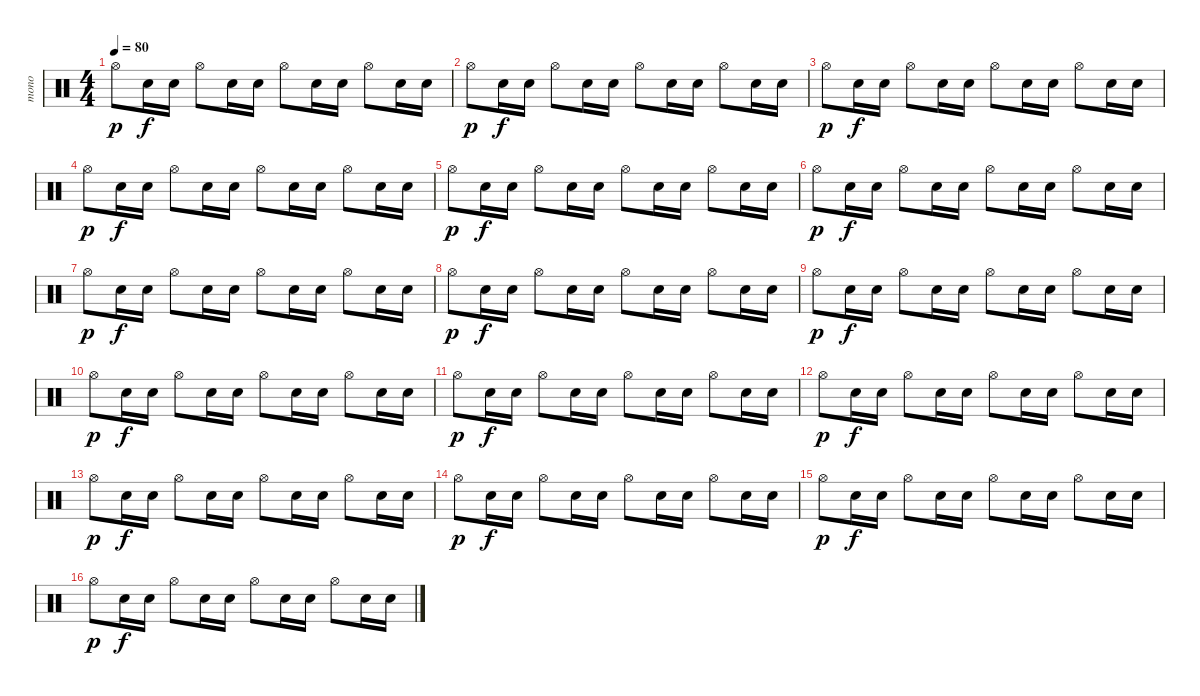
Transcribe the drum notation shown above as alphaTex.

\track ("mono" "mono") {instrument percussion}
\staff {score}
\articulation defaults
\ts (4 4)
\tempo 80
\clef neutral
\ks c "Hi-Hat (open)".8{dy p} "Snare (hit) 2".16{dy f} "Snare (hit) 2".16 "Hi-Hat (open)".8 "Snare (hit) 2".16 "Snare (hit) 2".16 "Hi-Hat (open)".8 "Snare (hit) 2".16 "Snare (hit) 2".16 "Hi-Hat (open)".8 "Snare (hit) 2".16 "Snare (hit) 2".16
|
"Hi-Hat (open)".8{dy p} "Snare (hit) 2".16{dy f} "Snare (hit) 2".16 "Hi-Hat (open)".8 "Snare (hit) 2".16 "Snare (hit) 2".16 "Hi-Hat (open)".8 "Snare (hit) 2".16 "Snare (hit) 2".16 "Hi-Hat (open)".8 "Snare (hit) 2".16 "Snare (hit) 2".16 |
"Hi-Hat (open)".8{dy p} "Snare (hit) 2".16{dy f} "Snare (hit) 2".16 "Hi-Hat (open)".8 "Snare (hit) 2".16 "Snare (hit) 2".16 "Hi-Hat (open)".8 "Snare (hit) 2".16 "Snare (hit) 2".16 "Hi-Hat (open)".8 "Snare (hit) 2".16 "Snare (hit) 2".16 |
"Hi-Hat (open)".8{dy p} "Snare (hit) 2".16{dy f} "Snare (hit) 2".16 "Hi-Hat (open)".8 "Snare (hit) 2".16 "Snare (hit) 2".16 "Hi-Hat (open)".8 "Snare (hit) 2".16 "Snare (hit) 2".16 "Hi-Hat (open)".8 "Snare (hit) 2".16 "Snare (hit) 2".16 |
"Hi-Hat (open)".8{dy p} "Snare (hit) 2".16{dy f} "Snare (hit) 2".16 "Hi-Hat (open)".8 "Snare (hit) 2".16 "Snare (hit) 2".16 "Hi-Hat (open)".8 "Snare (hit) 2".16 "Snare (hit) 2".16 "Hi-Hat (open)".8 "Snare (hit) 2".16 "Snare (hit) 2".16 |
"Hi-Hat (open)".8{dy p} "Snare (hit) 2".16{dy f} "Snare (hit) 2".16 "Hi-Hat (open)".8 "Snare (hit) 2".16 "Snare (hit) 2".16 "Hi-Hat (open)".8 "Snare (hit) 2".16 "Snare (hit) 2".16 "Hi-Hat (open)".8 "Snare (hit) 2".16 "Snare (hit) 2".16 |
"Hi-Hat (open)".8{dy p} "Snare (hit) 2".16{dy f} "Snare (hit) 2".16 "Hi-Hat (open)".8 "Snare (hit) 2".16 "Snare (hit) 2".16 "Hi-Hat (open)".8 "Snare (hit) 2".16 "Snare (hit) 2".16 "Hi-Hat (open)".8 "Snare (hit) 2".16 "Snare (hit) 2".16 |
"Hi-Hat (open)".8{dy p} "Snare (hit) 2".16{dy f} "Snare (hit) 2".16 "Hi-Hat (open)".8 "Snare (hit) 2".16 "Snare (hit) 2".16 "Hi-Hat (open)".8 "Snare (hit) 2".16 "Snare (hit) 2".16 "Hi-Hat (open)".8 "Snare (hit) 2".16 "Snare (hit) 2".16 |
"Hi-Hat (open)".8{dy p} "Snare (hit) 2".16{dy f} "Snare (hit) 2".16 "Hi-Hat (open)".8 "Snare (hit) 2".16 "Snare (hit) 2".16 "Hi-Hat (open)".8 "Snare (hit) 2".16 "Snare (hit) 2".16 "Hi-Hat (open)".8 "Snare (hit) 2".16 "Snare (hit) 2".16 |
"Hi-Hat (open)".8{dy p} "Snare (hit) 2".16{dy f} "Snare (hit) 2".16 "Hi-Hat (open)".8 "Snare (hit) 2".16 "Snare (hit) 2".16 "Hi-Hat (open)".8 "Snare (hit) 2".16 "Snare (hit) 2".16 "Hi-Hat (open)".8 "Snare (hit) 2".16 "Snare (hit) 2".16 |
"Hi-Hat (open)".8{dy p} "Snare (hit) 2".16{dy f} "Snare (hit) 2".16 "Hi-Hat (open)".8 "Snare (hit) 2".16 "Snare (hit) 2".16 "Hi-Hat (open)".8 "Snare (hit) 2".16 "Snare (hit) 2".16 "Hi-Hat (open)".8 "Snare (hit) 2".16 "Snare (hit) 2".16 |
"Hi-Hat (open)".8{dy p} "Snare (hit) 2".16{dy f} "Snare (hit) 2".16 "Hi-Hat (open)".8 "Snare (hit) 2".16 "Snare (hit) 2".16 "Hi-Hat (open)".8 "Snare (hit) 2".16 "Snare (hit) 2".16 "Hi-Hat (open)".8 "Snare (hit) 2".16 "Snare (hit) 2".16 |
"Hi-Hat (open)".8{dy p} "Snare (hit) 2".16{dy f} "Snare (hit) 2".16 "Hi-Hat (open)".8 "Snare (hit) 2".16 "Snare (hit) 2".16 "Hi-Hat (open)".8 "Snare (hit) 2".16 "Snare (hit) 2".16 "Hi-Hat (open)".8 "Snare (hit) 2".16 "Snare (hit) 2".16 |
"Hi-Hat (open)".8{dy p} "Snare (hit) 2".16{dy f} "Snare (hit) 2".16 "Hi-Hat (open)".8 "Snare (hit) 2".16 "Snare (hit) 2".16 "Hi-Hat (open)".8 "Snare (hit) 2".16 "Snare (hit) 2".16 "Hi-Hat (open)".8 "Snare (hit) 2".16 "Snare (hit) 2".16 |
"Hi-Hat (open)".8{dy p} "Snare (hit) 2".16{dy f} "Snare (hit) 2".16 "Hi-Hat (open)".8 "Snare (hit) 2".16 "Snare (hit) 2".16 "Hi-Hat (open)".8 "Snare (hit) 2".16 "Snare (hit) 2".16 "Hi-Hat (open)".8 "Snare (hit) 2".16 "Snare (hit) 2".16 |
"Hi-Hat (open)".8{dy p} "Snare (hit) 2".16{dy f} "Snare (hit) 2".16 "Hi-Hat (open)".8 "Snare (hit) 2".16 "Snare (hit) 2".16 "Hi-Hat (open)".8 "Snare (hit) 2".16 "Snare (hit) 2".16 "Hi-Hat (open)".8 "Snare (hit) 2".16 "Snare (hit) 2".16
